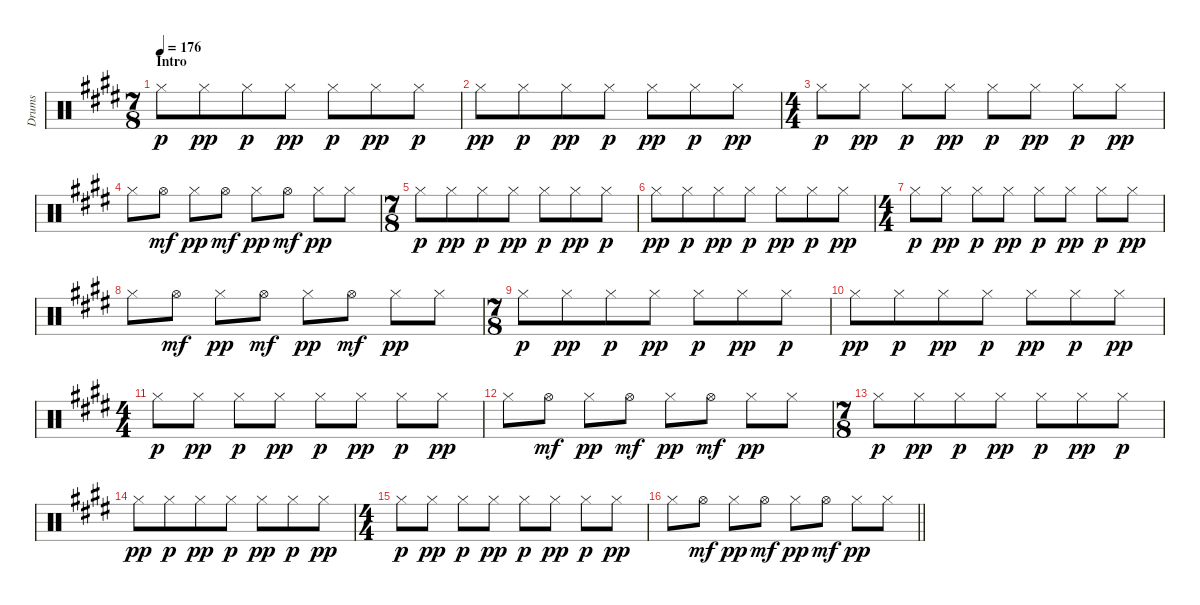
\track ("Drums" "Drums") {instrument percussion}
\staff {score}
\articulation defaults
\ts (7 8)
\section ("" "Intro")
\tempo 176
\clef neutral
\ks e "Hi-Hat (closed)".8{dy p} "Hi-Hat (closed)".8{dy pp} "Hi-Hat (closed)".8{dy p} "Hi-Hat (closed)".8{dy pp} "Hi-Hat (closed)".8{dy p} "Hi-Hat (closed)".8{dy pp} "Hi-Hat (closed)".8{dy p}
|
"Hi-Hat (closed)".8{dy pp} "Hi-Hat (closed)".8{dy p} "Hi-Hat (closed)".8{dy pp} "Hi-Hat (closed)".8{dy p} "Hi-Hat (closed)".8{dy pp} "Hi-Hat (closed)".8{dy p} "Hi-Hat (closed)".8{dy pp} |
\ts (4 4)
"Hi-Hat (closed)".8{dy p} "Hi-Hat (closed)".8{dy pp} "Hi-Hat (closed)".8{dy p} "Hi-Hat (closed)".8{dy pp} "Hi-Hat (closed)".8{dy p} "Hi-Hat (closed)".8{dy pp} "Hi-Hat (closed)".8{dy p} "Hi-Hat (closed)".8{dy pp} |
"Hi-Hat (closed)".8 "Hi-Hat (open)".8{dy mf} "Hi-Hat (closed)".8{dy pp} "Hi-Hat (open)".8{dy mf} "Hi-Hat (closed)".8{dy pp} "Hi-Hat (open)".8{dy mf} "Hi-Hat (closed)".8{dy pp} "Hi-Hat (closed)".8 |
\ts (7 8)
"Hi-Hat (closed)".8{dy p} "Hi-Hat (closed)".8{dy pp} "Hi-Hat (closed)".8{dy p} "Hi-Hat (closed)".8{dy pp} "Hi-Hat (closed)".8{dy p} "Hi-Hat (closed)".8{dy pp} "Hi-Hat (closed)".8{dy p} |
"Hi-Hat (closed)".8{dy pp} "Hi-Hat (closed)".8{dy p} "Hi-Hat (closed)".8{dy pp} "Hi-Hat (closed)".8{dy p} "Hi-Hat (closed)".8{dy pp} "Hi-Hat (closed)".8{dy p} "Hi-Hat (closed)".8{dy pp} |
\ts (4 4)
"Hi-Hat (closed)".8{dy p} "Hi-Hat (closed)".8{dy pp} "Hi-Hat (closed)".8{dy p} "Hi-Hat (closed)".8{dy pp} "Hi-Hat (closed)".8{dy p} "Hi-Hat (closed)".8{dy pp} "Hi-Hat (closed)".8{dy p} "Hi-Hat (closed)".8{dy pp} |
"Hi-Hat (closed)".8 "Hi-Hat (open)".8{dy mf} "Hi-Hat (closed)".8{dy pp} "Hi-Hat (open)".8{dy mf} "Hi-Hat (closed)".8{dy pp} "Hi-Hat (open)".8{dy mf} "Hi-Hat (closed)".8{dy pp} "Hi-Hat (closed)".8 |
\ts (7 8)
"Hi-Hat (closed)".8{dy p} "Hi-Hat (closed)".8{dy pp} "Hi-Hat (closed)".8{dy p} "Hi-Hat (closed)".8{dy pp} "Hi-Hat (closed)".8{dy p} "Hi-Hat (closed)".8{dy pp} "Hi-Hat (closed)".8{dy p} |
"Hi-Hat (closed)".8{dy pp} "Hi-Hat (closed)".8{dy p} "Hi-Hat (closed)".8{dy pp} "Hi-Hat (closed)".8{dy p} "Hi-Hat (closed)".8{dy pp} "Hi-Hat (closed)".8{dy p} "Hi-Hat (closed)".8{dy pp} |
\ts (4 4)
"Hi-Hat (closed)".8{dy p} "Hi-Hat (closed)".8{dy pp} "Hi-Hat (closed)".8{dy p} "Hi-Hat (closed)".8{dy pp} "Hi-Hat (closed)".8{dy p} "Hi-Hat (closed)".8{dy pp} "Hi-Hat (closed)".8{dy p} "Hi-Hat (closed)".8{dy pp} |
"Hi-Hat (closed)".8 "Hi-Hat (open)".8{dy mf} "Hi-Hat (closed)".8{dy pp} "Hi-Hat (open)".8{dy mf} "Hi-Hat (closed)".8{dy pp} "Hi-Hat (open)".8{dy mf} "Hi-Hat (closed)".8{dy pp} "Hi-Hat (closed)".8 |
\ts (7 8)
"Hi-Hat (closed)".8{dy p} "Hi-Hat (closed)".8{dy pp} "Hi-Hat (closed)".8{dy p} "Hi-Hat (closed)".8{dy pp} "Hi-Hat (closed)".8{dy p} "Hi-Hat (closed)".8{dy pp} "Hi-Hat (closed)".8{dy p} |
"Hi-Hat (closed)".8{dy pp} "Hi-Hat (closed)".8{dy p} "Hi-Hat (closed)".8{dy pp} "Hi-Hat (closed)".8{dy p} "Hi-Hat (closed)".8{dy pp} "Hi-Hat (closed)".8{dy p} "Hi-Hat (closed)".8{dy pp} |
\ts (4 4)
"Hi-Hat (closed)".8{dy p} "Hi-Hat (closed)".8{dy pp} "Hi-Hat (closed)".8{dy p} "Hi-Hat (closed)".8{dy pp} "Hi-Hat (closed)".8{dy p} "Hi-Hat (closed)".8{dy pp} "Hi-Hat (closed)".8{dy p} "Hi-Hat (closed)".8{dy pp} |
\barLineRight lightlight "Hi-Hat (closed)".8 "Hi-Hat (open)".8{dy mf} "Hi-Hat (closed)".8{dy pp} "Hi-Hat (open)".8{dy mf} "Hi-Hat (closed)".8{dy pp} "Hi-Hat (open)".8{dy mf} "Hi-Hat (closed)".8{dy pp} "Hi-Hat (closed)".8
